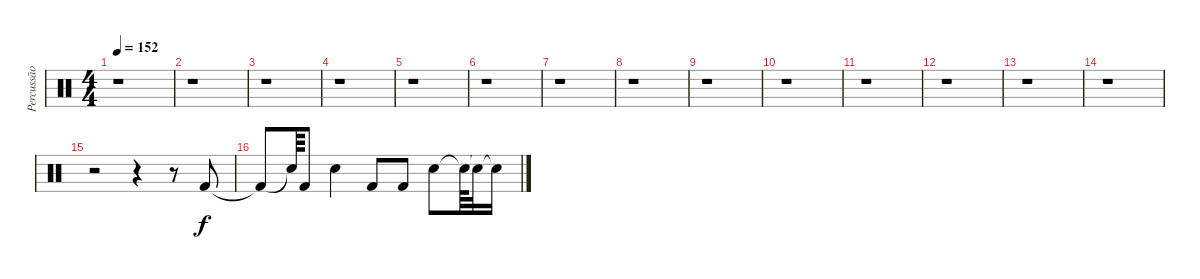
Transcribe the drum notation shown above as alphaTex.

\track ("Percussão" "Percussão") {instrument percussion}
\staff {score}
\articulation defaults
\ts (4 4)
\tempo 152
\clef neutral
\ks c
r.1{dy f} |
r.1 |
r.1 |
r.1 |
r.1 |
r.1 |
r.1 |
r.1 |
r.1 |
r.1 |
r.1 |
r.1 |
r.1 |
r.1 |
r.2 r.4 r.8 "Kick (hit) 2".8 |
"Kick (hit) 2"{t}.8 "Snare (hit)"{t}.64 "Kick (hit) 2".8 "Snare (hit) 2".4 "Kick (hit) 2".8 "Kick (hit) 2".8 "Snare (hit) 2".8 "Snare (hit)"{t}.64 "Snare (hit)"{t}.32 "Snare (hit)"{t}.16
